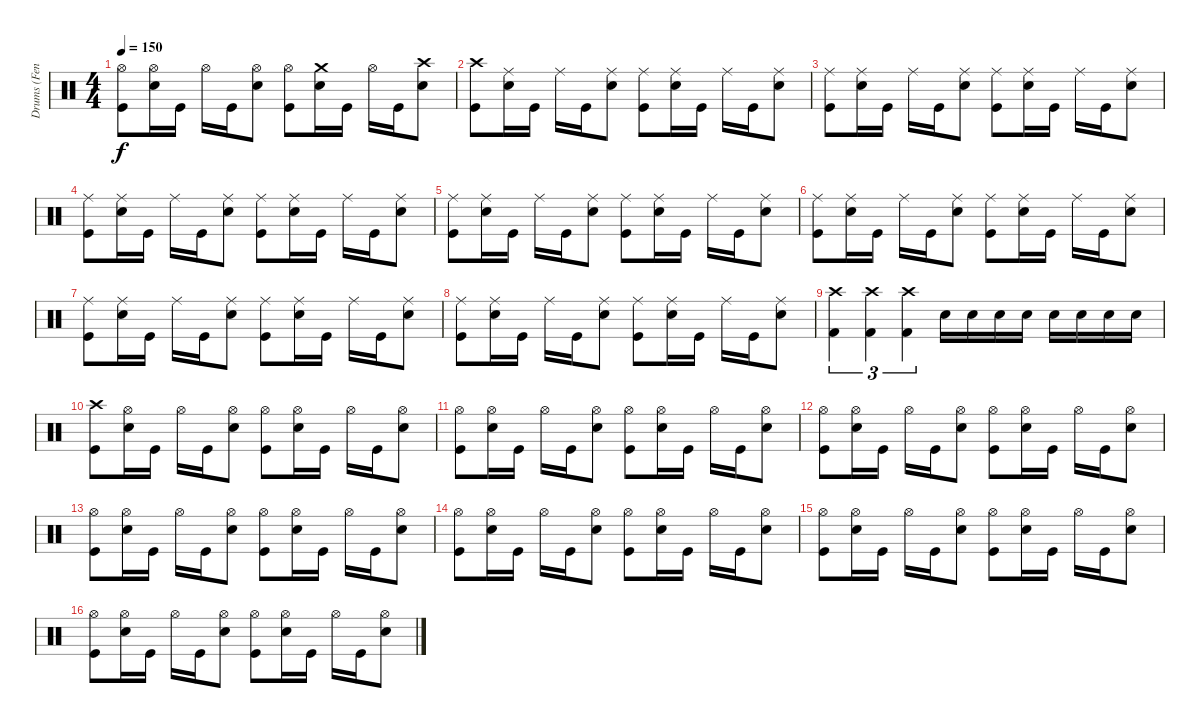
\track ("Drums (Fenriz)" "Drums (Fen") {instrument percussion}
\staff {score}
\articulation defaults
\ts (4 4)
\tempo 150
\clef neutral
\ks c
("Hi-Hat (open)" "Kick (hit)").8{dy f} ("Hi-Hat (open)" "Electric Snare (hit)").16 "Kick (hit)".16 "Hi-Hat (open)".16 "Kick (hit)".16 ("Hi-Hat (open)" "Electric Snare (hit)").8 ("Hi-Hat (open)" "Kick (hit)").8 ("Crash medium (hit)" "Electric Snare (hit)").16 "Kick (hit)".16 "Hi-Hat (open)".16 "Kick (hit)".16 ("Crash high (hit)" "Electric Snare (hit)").8 |
("Crash high (hit)" "Kick (hit)").8 ("Ride (middle)" "Electric Snare (hit)").16 "Kick (hit)".16 "Ride (middle)".16 "Kick (hit)".16 ("Ride (middle)" "Electric Snare (hit)").8 ("Ride (middle)" "Kick (hit)").8 ("Ride (middle)" "Electric Snare (hit)").16 "Kick (hit)".16 "Ride (middle)".16 "Kick (hit)".16 ("Ride (middle)" "Electric Snare (hit)").8 |
("Ride (middle)" "Kick (hit)").8 ("Ride (middle)" "Electric Snare (hit)").16 "Kick (hit)".16 "Ride (middle)".16 "Kick (hit)".16 ("Ride (middle)" "Electric Snare (hit)").8 ("Ride (middle)" "Kick (hit)").8 ("Ride (middle)" "Electric Snare (hit)").16 "Kick (hit)".16 "Ride (middle)".16 "Kick (hit)".16 ("Ride (middle)" "Electric Snare (hit)").8 |
("Ride (middle)" "Kick (hit)").8 ("Ride (middle)" "Electric Snare (hit)").16 "Kick (hit)".16 "Ride (middle)".16 "Kick (hit)".16 ("Ride (middle)" "Electric Snare (hit)").8 ("Ride (middle)" "Kick (hit)").8 ("Ride (middle)" "Electric Snare (hit)").16 "Kick (hit)".16 "Ride (middle)".16 "Kick (hit)".16 ("Ride (middle)" "Electric Snare (hit)").8 |
("Ride (middle)" "Kick (hit)").8 ("Ride (middle)" "Electric Snare (hit)").16 "Kick (hit)".16 "Ride (middle)".16 "Kick (hit)".16 ("Ride (middle)" "Electric Snare (hit)").8 ("Ride (middle)" "Kick (hit)").8 ("Ride (middle)" "Electric Snare (hit)").16 "Kick (hit)".16 "Ride (middle)".16 "Kick (hit)".16 ("Ride (middle)" "Electric Snare (hit)").8 |
("Ride (middle)" "Kick (hit)").8 ("Ride (middle)" "Electric Snare (hit)").16 "Kick (hit)".16 "Ride (middle)".16 "Kick (hit)".16 ("Ride (middle)" "Electric Snare (hit)").8 ("Ride (middle)" "Kick (hit)").8 ("Ride (middle)" "Electric Snare (hit)").16 "Kick (hit)".16 "Ride (middle)".16 "Kick (hit)".16 ("Ride (middle)" "Electric Snare (hit)").8 |
("Ride (middle)" "Kick (hit)").8 ("Ride (middle)" "Electric Snare (hit)").16 "Kick (hit)".16 "Ride (middle)".16 "Kick (hit)".16 ("Ride (middle)" "Electric Snare (hit)").8 ("Ride (middle)" "Kick (hit)").8 ("Ride (middle)" "Electric Snare (hit)").16 "Kick (hit)".16 "Ride (middle)".16 "Kick (hit)".16 ("Ride (middle)" "Electric Snare (hit)").8 |
("Ride (middle)" "Kick (hit)").8 ("Ride (middle)" "Electric Snare (hit)").16 "Kick (hit)".16 "Ride (middle)".16 "Kick (hit)".16 ("Ride (middle)" "Electric Snare (hit)").8 ("Ride (middle)" "Kick (hit)").8 ("Ride (middle)" "Electric Snare (hit)").16 "Kick (hit)".16 "Ride (middle)".16 "Kick (hit)".16 ("Ride (middle)" "Electric Snare (hit)").8 |
("Crash high (hit)" "Kick (hit) 2").4{tu (3 2)} ("Crash high (hit)" "Kick (hit) 2").4{tu (3 2)} ("Crash high (hit)" "Kick (hit) 2").4{tu (3 2)} "Electric Snare (hit)".16 "Electric Snare (hit)".16 "Electric Snare (hit)".16 "Electric Snare (hit)".16 "Electric Snare (hit)".16 "Electric Snare (hit)".16 "Electric Snare (hit)".16 "Electric Snare (hit)".16 |
("Crash high (hit)" "Kick (hit)").8 ("Hi-Hat (open)" "Electric Snare (hit)").16 "Kick (hit)".16 "Hi-Hat (open)".16 "Kick (hit)".16 ("Hi-Hat (open)" "Electric Snare (hit)").8 ("Hi-Hat (open)" "Kick (hit)").8 ("Hi-Hat (open)" "Electric Snare (hit)").16 "Kick (hit)".16 "Hi-Hat (open)".16 "Kick (hit)".16 ("Hi-Hat (open)" "Electric Snare (hit)").8 |
("Hi-Hat (open)" "Kick (hit)").8 ("Hi-Hat (open)" "Electric Snare (hit)").16 "Kick (hit)".16 "Hi-Hat (open)".16 "Kick (hit)".16 ("Hi-Hat (open)" "Electric Snare (hit)").8 ("Hi-Hat (open)" "Kick (hit)").8 ("Hi-Hat (open)" "Electric Snare (hit)").16 "Kick (hit)".16 "Hi-Hat (open)".16 "Kick (hit)".16 ("Hi-Hat (open)" "Electric Snare (hit)").8 |
("Hi-Hat (open)" "Kick (hit)").8 ("Hi-Hat (open)" "Electric Snare (hit)").16 "Kick (hit)".16 "Hi-Hat (open)".16 "Kick (hit)".16 ("Hi-Hat (open)" "Electric Snare (hit)").8 ("Hi-Hat (open)" "Kick (hit)").8 ("Hi-Hat (open)" "Electric Snare (hit)").16 "Kick (hit)".16 "Hi-Hat (open)".16 "Kick (hit)".16 ("Hi-Hat (open)" "Electric Snare (hit)").8 |
("Hi-Hat (open)" "Kick (hit)").8 ("Hi-Hat (open)" "Electric Snare (hit)").16 "Kick (hit)".16 "Hi-Hat (open)".16 "Kick (hit)".16 ("Hi-Hat (open)" "Electric Snare (hit)").8 ("Hi-Hat (open)" "Kick (hit)").8 ("Hi-Hat (open)" "Electric Snare (hit)").16 "Kick (hit)".16 "Hi-Hat (open)".16 "Kick (hit)".16 ("Hi-Hat (open)" "Electric Snare (hit)").8 |
("Hi-Hat (open)" "Kick (hit)").8 ("Hi-Hat (open)" "Electric Snare (hit)").16 "Kick (hit)".16 "Hi-Hat (open)".16 "Kick (hit)".16 ("Hi-Hat (open)" "Electric Snare (hit)").8 ("Hi-Hat (open)" "Kick (hit)").8 ("Hi-Hat (open)" "Electric Snare (hit)").16 "Kick (hit)".16 "Hi-Hat (open)".16 "Kick (hit)".16 ("Hi-Hat (open)" "Electric Snare (hit)").8 |
("Hi-Hat (open)" "Kick (hit)").8 ("Hi-Hat (open)" "Electric Snare (hit)").16 "Kick (hit)".16 "Hi-Hat (open)".16 "Kick (hit)".16 ("Hi-Hat (open)" "Electric Snare (hit)").8 ("Hi-Hat (open)" "Kick (hit)").8 ("Hi-Hat (open)" "Electric Snare (hit)").16 "Kick (hit)".16 "Hi-Hat (open)".16 "Kick (hit)".16 ("Hi-Hat (open)" "Electric Snare (hit)").8 |
("Hi-Hat (open)" "Kick (hit)").8 ("Hi-Hat (open)" "Electric Snare (hit)").16 "Kick (hit)".16 "Hi-Hat (open)".16 "Kick (hit)".16 ("Hi-Hat (open)" "Electric Snare (hit)").8 ("Hi-Hat (open)" "Kick (hit)").8 ("Hi-Hat (open)" "Electric Snare (hit)").16 "Kick (hit)".16 "Hi-Hat (open)".16 "Kick (hit)".16 ("Hi-Hat (open)" "Electric Snare (hit)").8
